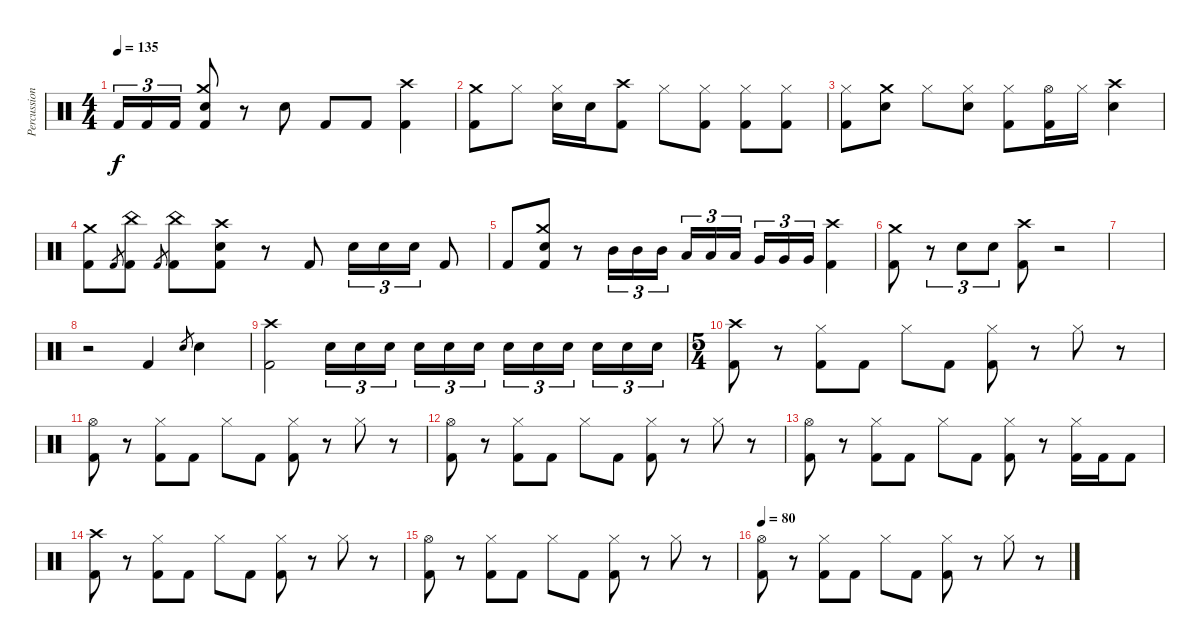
\track ("Percussion" "Percussion") {instrument percussion}
\staff {score}
\articulation defaults
\ts (4 4)
\tempo 135
\clef neutral
\ks c "Kick (hit) 2".16{tu (3 2) dy f} "Kick (hit) 2".16{tu (3 2)} "Kick (hit) 2".16{tu (3 2)}
("Crash medium (hit)" "Electric Snare (hit)" "Kick (hit) 2").8 r.8 "Electric Snare (hit)".8 "Kick (hit) 2".8 "Kick (hit) 2".8 ("Crash high (hit)" "Kick (hit) 2").4 |
("Crash medium (hit)" "Kick (hit) 2").8 "Hi-Hat (closed)".8 ("Hi-Hat (closed)" "Electric Snare (hit)").16 "Electric Snare (hit)".16 ("Crash high (hit)" "Kick (hit) 2").8 "Hi-Hat (closed)".8 ("Hi-Hat (closed)" "Kick (hit) 2").8 ("Hi-Hat (closed)" "Kick (hit) 2").8 ("Hi-Hat (closed)" "Kick (hit) 2").8 |
("Hi-Hat (closed)" "Kick (hit) 2").8 ("Crash medium (hit)" "Electric Snare (hit)").8 "Hi-Hat (closed)".8 ("Hi-Hat (closed)" "Electric Snare (hit)").8 ("Hi-Hat (closed)" "Kick (hit) 2").8 ("Hi-Hat (open)" "Kick (hit) 2").16 "Hi-Hat (closed)".16 ("Crash high (hit)" "Electric Snare (hit)").4 |
("Crash medium (hit)" "Kick (hit) 2").8 "Kick (hit) 2".8{gr} ("China (hit)" "Kick (hit) 2").8 "Kick (hit) 2".8{gr} ("China (hit)" "Kick (hit) 2").8 ("Crash high (hit)" "Electric Snare (hit)" "Kick (hit) 2").8 r.8 "Kick (hit) 2".8 "Electric Snare (hit)".16{tu (3 2)} "Electric Snare (hit)".16{tu (3 2)} "Electric Snare (hit)".16{tu (3 2)} "Kick (hit) 2".8 |
"Kick (hit) 2".8 ("Crash medium (hit)" "Electric Snare (hit)" "Kick (hit) 2").8 r.8 "Mid Tom (hit)".16{tu (3 2)} "Mid Tom (hit)".16{tu (3 2)} "Mid Tom (hit)".16{tu (3 2)} "Low Tom (hit)".16{tu (3 2)} "Low Tom (hit)".16{tu (3 2)} "Low Tom (hit)".16{tu (3 2)} "Very Low Tom (hit)".16{tu (3 2)} "Very Low Tom (hit)".16{tu (3 2)} "Very Low Tom (hit)".16{tu (3 2)} ("Crash high (hit)" "Kick (hit) 2").4 |
("Crash medium (hit)" "Kick (hit) 2").8 r.8{tu (3 2)} "Electric Snare (hit)".8{tu (3 2)} "Electric Snare (hit)".8{tu (3 2)} ("Crash high (hit)" "Kick (hit) 2").8 r.2 |
|
r.2 "Kick (hit) 2".4 "Electric Snare (hit)".8{gr} "Electric Snare (hit)".4 |
("Crash high (hit)" "Kick (hit) 2").2 "Electric Snare (hit)".16{tu (3 2)} "Electric Snare (hit)".16{tu (3 2)} "Electric Snare (hit)".16{tu (3 2)} "Electric Snare (hit)".16{tu (3 2)} "Electric Snare (hit)".16{tu (3 2)} "Electric Snare (hit)".16{tu (3 2)} "Electric Snare (hit)".16{tu (3 2)} "Electric Snare (hit)".16{tu (3 2)} "Electric Snare (hit)".16{tu (3 2)} "Electric Snare (hit)".16{tu (3 2)} "Electric Snare (hit)".16{tu (3 2)} "Electric Snare (hit)".16{tu (3 2)} |
\ts (5 4)
("Crash high (hit)" "Kick (hit) 2").8 r.8 ("Hi-Hat (closed)" "Kick (hit) 2").8 "Kick (hit) 2".8 "Hi-Hat (closed)".8 "Kick (hit) 2".8 ("Hi-Hat (closed)" "Kick (hit) 2").8 r.8 "Hi-Hat (closed)".8 r.8 |
("Hi-Hat (open)" "Kick (hit) 2").8 r.8 ("Hi-Hat (closed)" "Kick (hit) 2").8 "Kick (hit) 2".8 "Hi-Hat (closed)".8 "Kick (hit) 2".8 ("Hi-Hat (closed)" "Kick (hit) 2").8 r.8 "Hi-Hat (closed)".8 r.8 |
("Hi-Hat (open)" "Kick (hit) 2").8 r.8 ("Hi-Hat (closed)" "Kick (hit) 2").8 "Kick (hit) 2".8 "Hi-Hat (closed)".8 "Kick (hit) 2".8 ("Hi-Hat (closed)" "Kick (hit) 2").8 r.8 "Hi-Hat (closed)".8 r.8 |
("Hi-Hat (open)" "Kick (hit) 2").8 r.8 ("Hi-Hat (closed)" "Kick (hit) 2").8 "Kick (hit) 2".8 "Hi-Hat (closed)".8 "Kick (hit) 2".8 ("Hi-Hat (closed)" "Kick (hit) 2").8 r.8 ("Hi-Hat (closed)" "Kick (hit) 2").16 "Kick (hit) 2".16 "Kick (hit) 2".8 |
("Crash high (hit)" "Kick (hit) 2").8 r.8 ("Hi-Hat (closed)" "Kick (hit) 2").8 "Kick (hit) 2".8 "Hi-Hat (closed)".8 "Kick (hit) 2".8 ("Hi-Hat (closed)" "Kick (hit) 2").8 r.8 "Hi-Hat (closed)".8 r.8 |
("Hi-Hat (open)" "Kick (hit) 2").8 r.8 ("Hi-Hat (closed)" "Kick (hit) 2").8 "Kick (hit) 2".8 "Hi-Hat (closed)".8 "Kick (hit) 2".8 ("Hi-Hat (closed)" "Kick (hit) 2").8 r.8 "Hi-Hat (closed)".8 r.8 |
\tempo 80
("Hi-Hat (open)" "Kick (hit) 2").8 r.8 ("Hi-Hat (closed)" "Kick (hit) 2").8 "Kick (hit) 2".8 "Hi-Hat (closed)".8 "Kick (hit) 2".8 ("Hi-Hat (closed)" "Kick (hit) 2").8 r.8 "Hi-Hat (closed)".8 r.8
